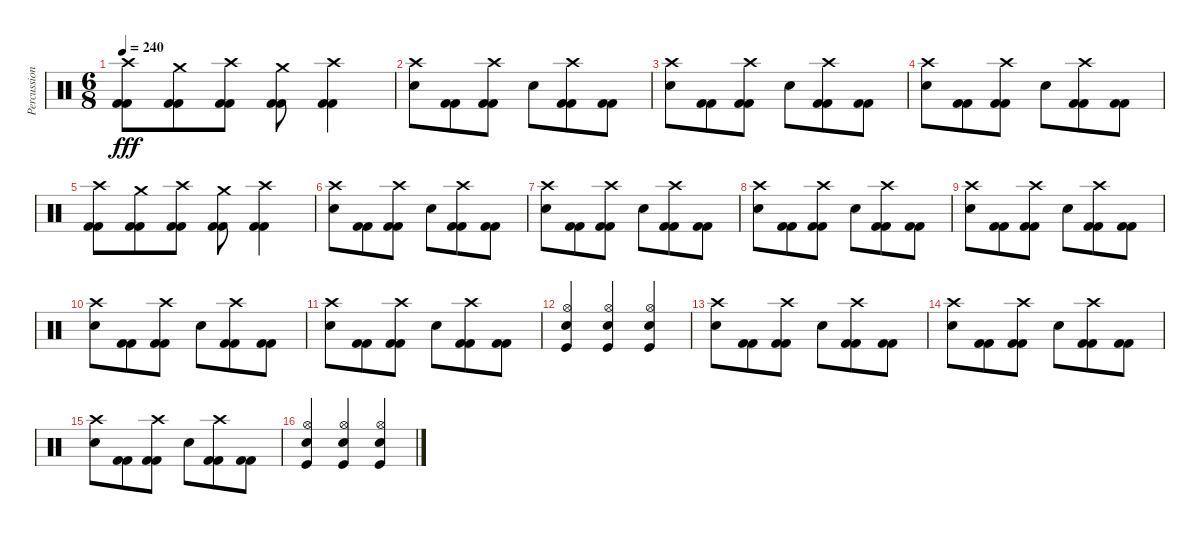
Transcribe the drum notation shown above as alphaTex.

\track ("Percussion" "Percussion") {instrument percussion}
\staff {score}
\articulation defaults
\ts (6 8)
\tempo 240
\clef neutral
\ks c
("Crash high (hit)" "Kick (hit) 2" "Kick (hit) 2").8{dy fff} ("Crash medium (hit)" "Kick (hit) 2" "Kick (hit) 2").8 ("Crash high (hit)" "Kick (hit) 2" "Kick (hit) 2").8 ("Crash medium (hit)" "Kick (hit) 2" "Kick (hit) 2").8 ("Crash high (hit)" "Kick (hit) 2" "Kick (hit) 2").4 |
("Crash high (hit)" "Snare (hit) 2").8 ("Kick (hit) 2" "Kick (hit) 2").8 ("Crash high (hit)" "Kick (hit) 2" "Kick (hit) 2").8 "Snare (hit) 2".8 ("Crash high (hit)" "Kick (hit) 2" "Kick (hit) 2").8 ("Kick (hit) 2" "Kick (hit) 2").8 |
("Crash high (hit)" "Snare (hit) 2").8 ("Kick (hit) 2" "Kick (hit) 2").8 ("Crash high (hit)" "Kick (hit) 2" "Kick (hit) 2").8 "Snare (hit) 2".8 ("Crash high (hit)" "Kick (hit) 2" "Kick (hit) 2").8 ("Kick (hit) 2" "Kick (hit) 2").8 |
("Crash high (hit)" "Snare (hit) 2").8 ("Kick (hit) 2" "Kick (hit) 2").8 ("Crash high (hit)" "Kick (hit) 2" "Kick (hit) 2").8 "Snare (hit) 2".8 ("Crash high (hit)" "Kick (hit) 2" "Kick (hit) 2").8 ("Kick (hit) 2" "Kick (hit) 2").8 |
("Crash high (hit)" "Kick (hit) 2" "Kick (hit) 2").8 ("Crash medium (hit)" "Kick (hit) 2" "Kick (hit) 2").8 ("Crash high (hit)" "Kick (hit) 2" "Kick (hit) 2").8 ("Crash medium (hit)" "Kick (hit) 2" "Kick (hit) 2").8 ("Crash high (hit)" "Kick (hit) 2" "Kick (hit) 2").4 |
("Crash high (hit)" "Snare (hit) 2").8 ("Kick (hit) 2" "Kick (hit) 2").8 ("Crash high (hit)" "Kick (hit) 2" "Kick (hit) 2").8 "Snare (hit) 2".8 ("Crash high (hit)" "Kick (hit) 2" "Kick (hit) 2").8 ("Kick (hit) 2" "Kick (hit) 2").8 |
("Crash high (hit)" "Snare (hit) 2").8 ("Kick (hit) 2" "Kick (hit) 2").8 ("Crash high (hit)" "Kick (hit) 2" "Kick (hit) 2").8 "Snare (hit) 2".8 ("Crash high (hit)" "Kick (hit) 2" "Kick (hit) 2").8 ("Kick (hit) 2" "Kick (hit) 2").8 |
("Crash high (hit)" "Snare (hit) 2").8 ("Kick (hit) 2" "Kick (hit) 2").8 ("Crash high (hit)" "Kick (hit) 2" "Kick (hit) 2").8 "Snare (hit) 2".8 ("Crash high (hit)" "Kick (hit) 2" "Kick (hit) 2").8 ("Kick (hit) 2" "Kick (hit) 2").8 |
("Crash high (hit)" "Snare (hit) 2").8 ("Kick (hit) 2" "Kick (hit) 2").8 ("Crash high (hit)" "Kick (hit) 2" "Kick (hit) 2").8 "Snare (hit) 2".8 ("Crash high (hit)" "Kick (hit) 2" "Kick (hit) 2").8 ("Kick (hit) 2" "Kick (hit) 2").8 |
("Crash high (hit)" "Snare (hit) 2").8 ("Kick (hit) 2" "Kick (hit) 2").8 ("Crash high (hit)" "Kick (hit) 2" "Kick (hit) 2").8 "Snare (hit) 2".8 ("Crash high (hit)" "Kick (hit) 2" "Kick (hit) 2").8 ("Kick (hit) 2" "Kick (hit) 2").8 |
("Crash high (hit)" "Snare (hit) 2").8 ("Kick (hit) 2" "Kick (hit) 2").8 ("Crash high (hit)" "Kick (hit) 2" "Kick (hit) 2").8 "Snare (hit) 2".8 ("Crash high (hit)" "Kick (hit) 2" "Kick (hit) 2").8 ("Kick (hit) 2" "Kick (hit) 2").8 |
("Electric Snare (hit)" "Hi-Hat (open)" "Kick (hit)").4 ("Electric Snare (hit)" "Hi-Hat (open)" "Kick (hit)").4 ("Electric Snare (hit)" "Hi-Hat (open)" "Kick (hit)").4 |
("Crash high (hit)" "Snare (hit) 2").8 ("Kick (hit) 2" "Kick (hit) 2").8 ("Crash high (hit)" "Kick (hit) 2" "Kick (hit) 2").8 "Snare (hit) 2".8 ("Crash high (hit)" "Kick (hit) 2" "Kick (hit) 2").8 ("Kick (hit) 2" "Kick (hit) 2").8 |
("Crash high (hit)" "Snare (hit) 2").8 ("Kick (hit) 2" "Kick (hit) 2").8 ("Crash high (hit)" "Kick (hit) 2" "Kick (hit) 2").8 "Snare (hit) 2".8 ("Crash high (hit)" "Kick (hit) 2" "Kick (hit) 2").8 ("Kick (hit) 2" "Kick (hit) 2").8 |
("Crash high (hit)" "Snare (hit) 2").8 ("Kick (hit) 2" "Kick (hit) 2").8 ("Crash high (hit)" "Kick (hit) 2" "Kick (hit) 2").8 "Snare (hit) 2".8 ("Crash high (hit)" "Kick (hit) 2" "Kick (hit) 2").8 ("Kick (hit) 2" "Kick (hit) 2").8 |
("Electric Snare (hit)" "Hi-Hat (open)" "Kick (hit)").4 ("Electric Snare (hit)" "Hi-Hat (open)" "Kick (hit)").4 ("Electric Snare (hit)" "Hi-Hat (open)" "Kick (hit)").4
